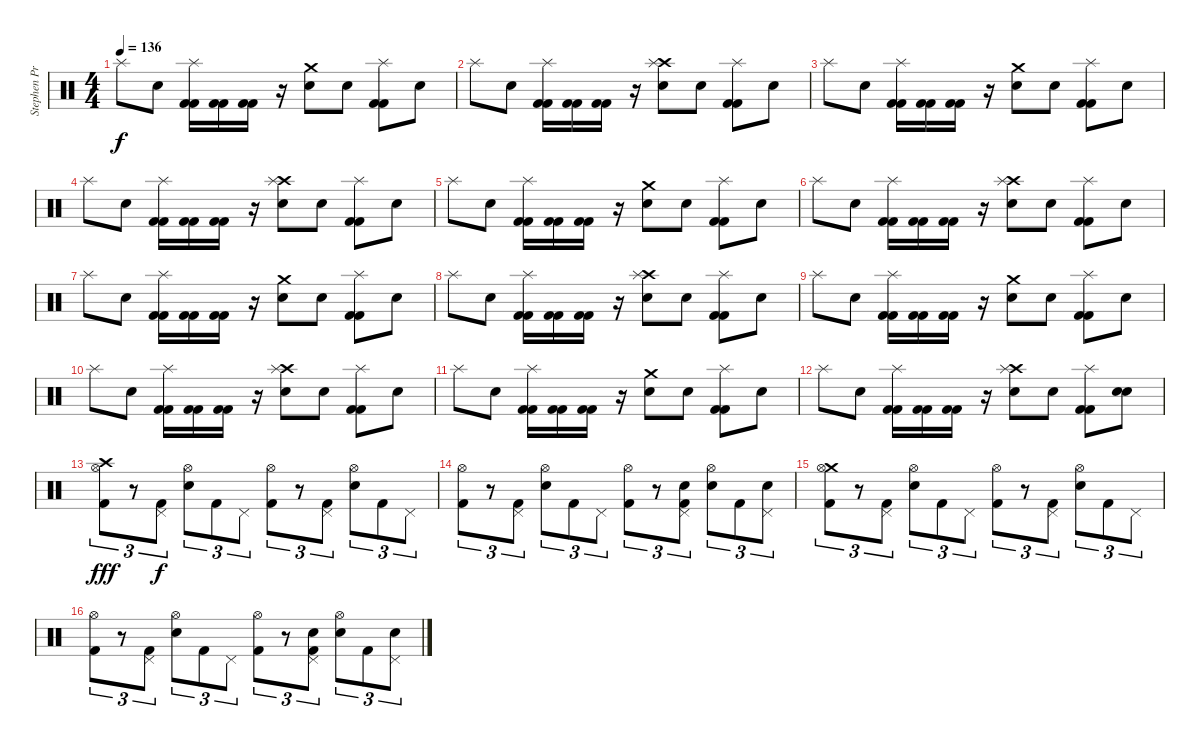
\track ("Stephen Priestly  (Drums)" "Stephen Pr") {instrument percussion}
\staff {score}
\articulation defaults
\ts (4 4)
\tempo 136
\clef neutral
\ks c "Splash (hit)".8{dy f} "Snare (hit)".8
("Splash (hit)" "Kick (hit) 2" "Kick (hit) 2").16 ("Kick (hit) 2" "Kick (hit) 2").16 ("Kick (hit) 2" "Kick (hit) 2").16 r.16 ("Crash medium (hit)" "Electric Snare (hit)").8 "Snare (hit)".8 ("Splash (hit)" "Kick (hit) 2" "Kick (hit) 2").8 "Snare (hit)".8 |
"Splash (hit)".8 "Snare (hit)".8 ("Splash (hit)" "Kick (hit) 2" "Kick (hit) 2").16 ("Kick (hit) 2" "Kick (hit) 2").16 ("Kick (hit) 2" "Kick (hit) 2").16 r.16 ("Crash high (hit)" "Splash (hit)" "Electric Snare (hit)").8 "Snare (hit)".8 ("Splash (hit)" "Kick (hit) 2" "Kick (hit) 2").8 "Snare (hit)".8 |
"Splash (hit)".8 "Snare (hit)".8 ("Splash (hit)" "Kick (hit) 2" "Kick (hit) 2").16 ("Kick (hit) 2" "Kick (hit) 2").16 ("Kick (hit) 2" "Kick (hit) 2").16 r.16 ("Crash medium (hit)" "Electric Snare (hit)").8 "Snare (hit)".8 ("Splash (hit)" "Kick (hit) 2" "Kick (hit) 2").8 "Snare (hit)".8 |
"Splash (hit)".8 "Snare (hit)".8 ("Splash (hit)" "Kick (hit) 2" "Kick (hit) 2").16 ("Kick (hit) 2" "Kick (hit) 2").16 ("Kick (hit) 2" "Kick (hit) 2").16 r.16 ("Crash high (hit)" "Splash (hit)" "Electric Snare (hit)").8 "Snare (hit)".8 ("Splash (hit)" "Kick (hit) 2" "Kick (hit) 2").8 "Snare (hit)".8 |
"Splash (hit)".8 "Snare (hit)".8 ("Splash (hit)" "Kick (hit) 2" "Kick (hit) 2").16 ("Kick (hit) 2" "Kick (hit) 2").16 ("Kick (hit) 2" "Kick (hit) 2").16 r.16 ("Crash medium (hit)" "Electric Snare (hit)").8 "Snare (hit)".8 ("Splash (hit)" "Kick (hit) 2" "Kick (hit) 2").8 "Snare (hit)".8 |
"Splash (hit)".8 "Snare (hit)".8 ("Splash (hit)" "Kick (hit) 2" "Kick (hit) 2").16 ("Kick (hit) 2" "Kick (hit) 2").16 ("Kick (hit) 2" "Kick (hit) 2").16 r.16 ("Crash high (hit)" "Splash (hit)" "Electric Snare (hit)").8 "Snare (hit)".8 ("Splash (hit)" "Kick (hit) 2" "Kick (hit) 2").8 "Snare (hit)".8 |
"Splash (hit)".8 "Snare (hit)".8 ("Splash (hit)" "Kick (hit) 2" "Kick (hit) 2").16 ("Kick (hit) 2" "Kick (hit) 2").16 ("Kick (hit) 2" "Kick (hit) 2").16 r.16 ("Crash medium (hit)" "Electric Snare (hit)").8 "Snare (hit)".8 ("Splash (hit)" "Kick (hit) 2" "Kick (hit) 2").8 "Snare (hit)".8 |
"Splash (hit)".8 "Snare (hit)".8 ("Splash (hit)" "Kick (hit) 2" "Kick (hit) 2").16 ("Kick (hit) 2" "Kick (hit) 2").16 ("Kick (hit) 2" "Kick (hit) 2").16 r.16 ("Crash high (hit)" "Splash (hit)" "Electric Snare (hit)").8 "Snare (hit)".8 ("Splash (hit)" "Kick (hit) 2" "Kick (hit) 2").8 "Snare (hit)".8 |
"Splash (hit)".8 "Snare (hit)".8 ("Splash (hit)" "Kick (hit) 2" "Kick (hit) 2").16 ("Kick (hit) 2" "Kick (hit) 2").16 ("Kick (hit) 2" "Kick (hit) 2").16 r.16 ("Crash medium (hit)" "Electric Snare (hit)").8 "Snare (hit)".8 ("Splash (hit)" "Kick (hit) 2" "Kick (hit) 2").8 "Snare (hit)".8 |
"Splash (hit)".8 "Snare (hit)".8 ("Splash (hit)" "Kick (hit) 2" "Kick (hit) 2").16 ("Kick (hit) 2" "Kick (hit) 2").16 ("Kick (hit) 2" "Kick (hit) 2").16 r.16 ("Crash high (hit)" "Splash (hit)" "Electric Snare (hit)").8 "Snare (hit)".8 ("Splash (hit)" "Kick (hit) 2" "Kick (hit) 2").8 "Snare (hit)".8 |
"Splash (hit)".8 "Snare (hit)".8 ("Splash (hit)" "Kick (hit) 2" "Kick (hit) 2").16 ("Kick (hit) 2" "Kick (hit) 2").16 ("Kick (hit) 2" "Kick (hit) 2").16 r.16 ("Crash medium (hit)" "Electric Snare (hit)").8 "Snare (hit)".8 ("Splash (hit)" "Kick (hit) 2" "Kick (hit) 2").8 "Snare (hit)".8 |
"Splash (hit)".8 "Snare (hit)".8 ("Splash (hit)" "Kick (hit) 2" "Kick (hit) 2").16 ("Kick (hit) 2" "Kick (hit) 2").16 ("Kick (hit) 2" "Kick (hit) 2").16 r.16 ("Crash high (hit)" "Splash (hit)" "Electric Snare (hit)").8 "Snare (hit)".8 ("Splash (hit)" "Kick (hit) 2" "Kick (hit) 2").8 ("Electric Snare (hit)" "Snare (hit) 2").8 |
("Crash high (hit)" "Hi-Hat (open)" "Kick (hit) 2").8{tu (3 2) dy fff} r.8{tu (3 2)} ("Pedal Hi-Hat (hit)" "Kick (hit) 2").8{tu (3 2) dy f} ("Hi-Hat (open)" "Electric Snare (hit)").8{tu (3 2)} "Kick (hit) 2".8{tu (3 2)} "Pedal Hi-Hat (hit)".8{tu (3 2)} ("Hi-Hat (open)" "Kick (hit) 2").8{tu (3 2)} r.8{tu (3 2)} ("Pedal Hi-Hat (hit)" "Kick (hit) 2").8{tu (3 2)} ("Hi-Hat (open)" "Electric Snare (hit)").8{tu (3 2)} "Kick (hit) 2".8{tu (3 2)} "Pedal Hi-Hat (hit)".8{tu (3 2)} |
("Hi-Hat (open)" "Kick (hit) 2").8{tu (3 2)} r.8{tu (3 2)} ("Pedal Hi-Hat (hit)" "Kick (hit) 2").8{tu (3 2)} ("Hi-Hat (open)" "Electric Snare (hit)").8{tu (3 2)} "Kick (hit) 2".8{tu (3 2)} "Pedal Hi-Hat (hit)".8{tu (3 2)} ("Hi-Hat (open)" "Kick (hit) 2").8{tu (3 2)} r.8{tu (3 2)} ("Pedal Hi-Hat (hit)" "Electric Snare (hit)" "Kick (hit) 2").8{tu (3 2)} ("Hi-Hat (open)" "Electric Snare (hit)").8{tu (3 2)} "Kick (hit) 2".8{tu (3 2)} ("Pedal Hi-Hat (hit)" "Electric Snare (hit)").8{tu (3 2)} |
("Crash medium (hit)" "Hi-Hat (open)" "Kick (hit) 2").8{tu (3 2)} r.8{tu (3 2)} ("Pedal Hi-Hat (hit)" "Kick (hit) 2").8{tu (3 2)} ("Hi-Hat (open)" "Electric Snare (hit)").8{tu (3 2)} "Kick (hit) 2".8{tu (3 2)} "Pedal Hi-Hat (hit)".8{tu (3 2)} ("Hi-Hat (open)" "Kick (hit) 2").8{tu (3 2)} r.8{tu (3 2)} ("Pedal Hi-Hat (hit)" "Kick (hit) 2").8{tu (3 2)} ("Hi-Hat (open)" "Electric Snare (hit)").8{tu (3 2)} "Kick (hit) 2".8{tu (3 2)} "Pedal Hi-Hat (hit)".8{tu (3 2)} |
("Hi-Hat (open)" "Kick (hit) 2").8{tu (3 2)} r.8{tu (3 2)} ("Pedal Hi-Hat (hit)" "Kick (hit) 2").8{tu (3 2)} ("Hi-Hat (open)" "Electric Snare (hit)").8{tu (3 2)} "Kick (hit) 2".8{tu (3 2)} "Pedal Hi-Hat (hit)".8{tu (3 2)} ("Hi-Hat (open)" "Kick (hit) 2").8{tu (3 2)} r.8{tu (3 2)} ("Pedal Hi-Hat (hit)" "Electric Snare (hit)" "Kick (hit) 2").8{tu (3 2)} ("Hi-Hat (open)" "Electric Snare (hit)").8{tu (3 2)} "Kick (hit) 2".8{tu (3 2)} ("Pedal Hi-Hat (hit)" "Electric Snare (hit)").8{tu (3 2)}
